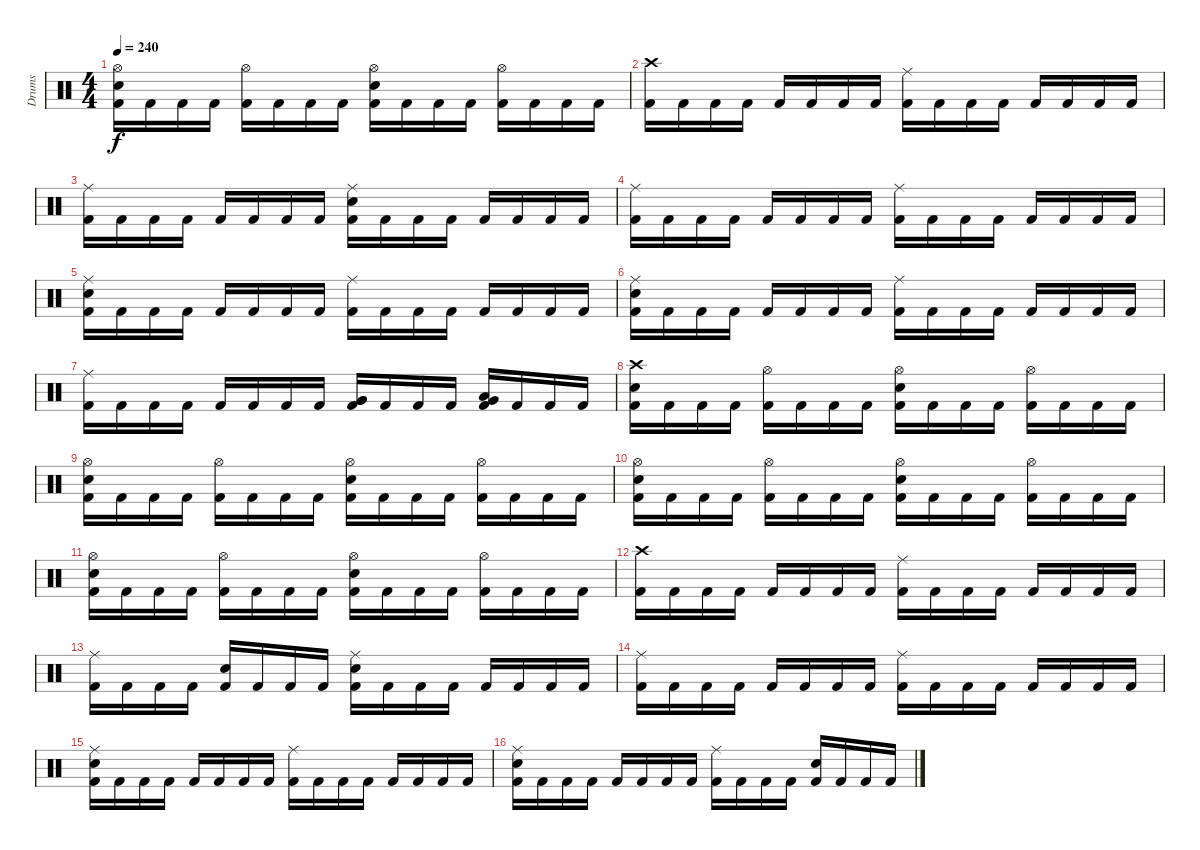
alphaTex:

\track ("Drums" "Drums") {instrument percussion}
\staff {score}
\articulation defaults
\ts (4 4)
\tempo 240
\clef neutral
\ks c
("Hi-Hat (open)" "Electric Snare (hit)" "Kick (hit) 2").16{dy f} "Kick (hit) 2".16 "Kick (hit) 2".16 "Kick (hit) 2".16 ("Hi-Hat (open)" "Kick (hit) 2").16 "Kick (hit) 2".16 "Kick (hit) 2".16 "Kick (hit) 2".16 ("Hi-Hat (open)" "Electric Snare (hit)" "Kick (hit) 2").16 "Kick (hit) 2".16 "Kick (hit) 2".16 "Kick (hit) 2".16 ("Hi-Hat (open)" "Kick (hit) 2").16 "Kick (hit) 2".16 "Kick (hit) 2".16 "Kick (hit) 2".16 |
("Crash high (hit)" "Kick (hit) 2").16 "Kick (hit) 2".16 "Kick (hit) 2".16 "Kick (hit) 2".16 "Kick (hit) 2".16 "Kick (hit) 2".16 "Kick (hit) 2".16 "Kick (hit) 2".16 ("Ride (middle)" "Kick (hit) 2").16 "Kick (hit) 2".16 "Kick (hit) 2".16 "Kick (hit) 2".16 "Kick (hit) 2".16 "Kick (hit) 2".16 "Kick (hit) 2".16 "Kick (hit) 2".16 |
("Ride (middle)" "Kick (hit) 2").16 "Kick (hit) 2".16 "Kick (hit) 2".16 "Kick (hit) 2".16 "Kick (hit) 2".16 "Kick (hit) 2".16 "Kick (hit) 2".16 "Kick (hit) 2".16 ("Ride (middle)" "Electric Snare (hit)" "Kick (hit) 2").16 "Kick (hit) 2".16 "Kick (hit) 2".16 "Kick (hit) 2".16 "Kick (hit) 2".16 "Kick (hit) 2".16 "Kick (hit) 2".16 "Kick (hit) 2".16 |
("Ride (middle)" "Kick (hit) 2").16 "Kick (hit) 2".16 "Kick (hit) 2".16 "Kick (hit) 2".16 "Kick (hit) 2".16 "Kick (hit) 2".16 "Kick (hit) 2".16 "Kick (hit) 2".16 ("Ride (middle)" "Kick (hit) 2").16 "Kick (hit) 2".16 "Kick (hit) 2".16 "Kick (hit) 2".16 "Kick (hit) 2".16 "Kick (hit) 2".16 "Kick (hit) 2".16 "Kick (hit) 2".16 |
("Ride (middle)" "Electric Snare (hit)" "Kick (hit) 2").16 "Kick (hit) 2".16 "Kick (hit) 2".16 "Kick (hit) 2".16 "Kick (hit) 2".16 "Kick (hit) 2".16 "Kick (hit) 2".16 "Kick (hit) 2".16 ("Ride (middle)" "Kick (hit) 2").16 "Kick (hit) 2".16 "Kick (hit) 2".16 "Kick (hit) 2".16 "Kick (hit) 2".16 "Kick (hit) 2".16 "Kick (hit) 2".16 "Kick (hit) 2".16 |
("Ride (middle)" "Electric Snare (hit)" "Kick (hit) 2").16 "Kick (hit) 2".16 "Kick (hit) 2".16 "Kick (hit) 2".16 "Kick (hit) 2".16 "Kick (hit) 2".16 "Kick (hit) 2".16 "Kick (hit) 2".16 ("Ride (middle)" "Kick (hit) 2").16 "Kick (hit) 2".16 "Kick (hit) 2".16 "Kick (hit) 2".16 "Kick (hit) 2".16 "Kick (hit) 2".16 "Kick (hit) 2".16 "Kick (hit) 2".16 |
("Ride (middle)" "Kick (hit) 2").16 "Kick (hit) 2".16 "Kick (hit) 2".16 "Kick (hit) 2".16 "Kick (hit) 2".16 "Kick (hit) 2".16 "Kick (hit) 2".16 "Kick (hit) 2".16 ("Very Low Tom (hit)" "Very Low Tom (hit)" "Kick (hit) 2").16 "Kick (hit) 2".16 "Kick (hit) 2".16 "Kick (hit) 2".16 ("Very Low Tom (hit)" "Low Floor Tom (hit)" "Kick (hit) 2").16 "Kick (hit) 2".16 "Kick (hit) 2".16 "Kick (hit) 2".16 |
("Crash high (hit)" "Electric Snare (hit)" "Kick (hit) 2").16 "Kick (hit) 2".16 "Kick (hit) 2".16 "Kick (hit) 2".16 ("Hi-Hat (open)" "Kick (hit) 2").16 "Kick (hit) 2".16 "Kick (hit) 2".16 "Kick (hit) 2".16 ("Hi-Hat (open)" "Electric Snare (hit)" "Kick (hit) 2").16 "Kick (hit) 2".16 "Kick (hit) 2".16 "Kick (hit) 2".16 ("Hi-Hat (open)" "Kick (hit) 2").16 "Kick (hit) 2".16 "Kick (hit) 2".16 "Kick (hit) 2".16 |
("Hi-Hat (open)" "Electric Snare (hit)" "Kick (hit) 2").16 "Kick (hit) 2".16 "Kick (hit) 2".16 "Kick (hit) 2".16 ("Hi-Hat (open)" "Kick (hit) 2").16 "Kick (hit) 2".16 "Kick (hit) 2".16 "Kick (hit) 2".16 ("Hi-Hat (open)" "Electric Snare (hit)" "Kick (hit) 2").16 "Kick (hit) 2".16 "Kick (hit) 2".16 "Kick (hit) 2".16 ("Hi-Hat (open)" "Kick (hit) 2").16 "Kick (hit) 2".16 "Kick (hit) 2".16 "Kick (hit) 2".16 |
("Hi-Hat (open)" "Electric Snare (hit)" "Kick (hit) 2").16 "Kick (hit) 2".16 "Kick (hit) 2".16 "Kick (hit) 2".16 ("Hi-Hat (open)" "Kick (hit) 2").16 "Kick (hit) 2".16 "Kick (hit) 2".16 "Kick (hit) 2".16 ("Hi-Hat (open)" "Electric Snare (hit)" "Kick (hit) 2").16 "Kick (hit) 2".16 "Kick (hit) 2".16 "Kick (hit) 2".16 ("Hi-Hat (open)" "Kick (hit) 2").16 "Kick (hit) 2".16 "Kick (hit) 2".16 "Kick (hit) 2".16 |
("Hi-Hat (open)" "Electric Snare (hit)" "Kick (hit) 2").16 "Kick (hit) 2".16 "Kick (hit) 2".16 "Kick (hit) 2".16 ("Hi-Hat (open)" "Kick (hit) 2").16 "Kick (hit) 2".16 "Kick (hit) 2".16 "Kick (hit) 2".16 ("Hi-Hat (open)" "Electric Snare (hit)" "Kick (hit) 2").16 "Kick (hit) 2".16 "Kick (hit) 2".16 "Kick (hit) 2".16 ("Hi-Hat (open)" "Kick (hit) 2").16 "Kick (hit) 2".16 "Kick (hit) 2".16 "Kick (hit) 2".16 |
("Crash high (hit)" "Kick (hit) 2").16 "Kick (hit) 2".16 "Kick (hit) 2".16 "Kick (hit) 2".16 "Kick (hit) 2".16 "Kick (hit) 2".16 "Kick (hit) 2".16 "Kick (hit) 2".16 ("Ride (middle)" "Kick (hit) 2").16 "Kick (hit) 2".16 "Kick (hit) 2".16 "Kick (hit) 2".16 "Kick (hit) 2".16 "Kick (hit) 2".16 "Kick (hit) 2".16 "Kick (hit) 2".16 |
("Ride (middle)" "Kick (hit) 2").16 "Kick (hit) 2".16 "Kick (hit) 2".16 "Kick (hit) 2".16 ("Electric Snare (hit)" "Kick (hit) 2").16 "Kick (hit) 2".16 "Kick (hit) 2".16 "Kick (hit) 2".16 ("Ride (middle)" "Electric Snare (hit)" "Kick (hit) 2").16 "Kick (hit) 2".16 "Kick (hit) 2".16 "Kick (hit) 2".16 "Kick (hit) 2".16 "Kick (hit) 2".16 "Kick (hit) 2".16 "Kick (hit) 2".16 |
("Ride (middle)" "Kick (hit) 2").16 "Kick (hit) 2".16 "Kick (hit) 2".16 "Kick (hit) 2".16 "Kick (hit) 2".16 "Kick (hit) 2".16 "Kick (hit) 2".16 "Kick (hit) 2".16 ("Ride (middle)" "Kick (hit) 2").16 "Kick (hit) 2".16 "Kick (hit) 2".16 "Kick (hit) 2".16 "Kick (hit) 2".16 "Kick (hit) 2".16 "Kick (hit) 2".16 "Kick (hit) 2".16 |
("Ride (middle)" "Electric Snare (hit)" "Kick (hit) 2").16 "Kick (hit) 2".16 "Kick (hit) 2".16 "Kick (hit) 2".16 "Kick (hit) 2".16 "Kick (hit) 2".16 "Kick (hit) 2".16 "Kick (hit) 2".16 ("Ride (middle)" "Kick (hit) 2").16 "Kick (hit) 2".16 "Kick (hit) 2".16 "Kick (hit) 2".16 "Kick (hit) 2".16 "Kick (hit) 2".16 "Kick (hit) 2".16 "Kick (hit) 2".16 |
("Ride (middle)" "Electric Snare (hit)" "Kick (hit) 2").16 "Kick (hit) 2".16 "Kick (hit) 2".16 "Kick (hit) 2".16 "Kick (hit) 2".16 "Kick (hit) 2".16 "Kick (hit) 2".16 "Kick (hit) 2".16 ("Ride (middle)" "Kick (hit) 2").16 "Kick (hit) 2".16 "Kick (hit) 2".16 "Kick (hit) 2".16 ("Electric Snare (hit)" "Kick (hit) 2").16 "Kick (hit) 2".16 "Kick (hit) 2".16 "Kick (hit) 2".16
